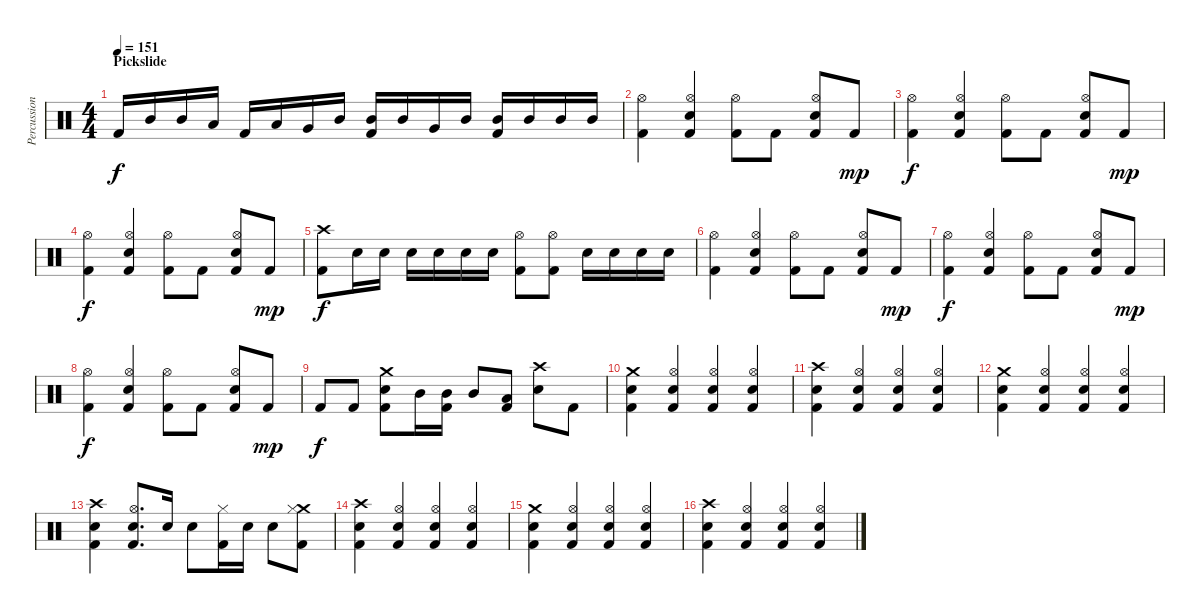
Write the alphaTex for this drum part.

\track ("Percussion" "Percussion") {instrument percussion}
\staff {score}
\articulation defaults
\ts (4 4)
\section ("" "Pickslide")
\tempo 151
\clef neutral
\ks c "Kick (hit) 2".16{dy f} "Mid Tom (hit)".16 "Mid Tom (hit)".16 "Low Tom (hit)".16 "Kick (hit) 2".16 "Low Tom (hit)".16 "Very Low Tom (hit)".16 "Mid Tom (hit)".16
("Mid Tom (hit)" "Kick (hit) 2").16 "Mid Tom (hit)".16 "Very Low Tom (hit)".16 "Mid Tom (hit)".16 ("Mid Tom (hit)" "Kick (hit) 2").16 "Mid Tom (hit)".16 "Mid Tom (hit)".16 "Mid Tom (hit)".16 |
("Hi-Hat (open)" "Kick (hit) 2").4 ("Hi-Hat (open)" "Snare (hit) 2" "Kick (hit) 2").4 ("Hi-Hat (open)" "Kick (hit) 2").8 "Kick (hit) 2".8 ("Hi-Hat (open)" "Snare (hit) 2" "Kick (hit) 2").8 "Kick (hit) 2".8{dy mp} |
("Hi-Hat (open)" "Kick (hit) 2").4{dy f} ("Hi-Hat (open)" "Snare (hit) 2" "Kick (hit) 2").4 ("Hi-Hat (open)" "Kick (hit) 2").8 "Kick (hit) 2".8 ("Hi-Hat (open)" "Snare (hit) 2" "Kick (hit) 2").8 "Kick (hit) 2".8{dy mp} |
("Hi-Hat (open)" "Kick (hit) 2").4{dy f} ("Hi-Hat (open)" "Snare (hit) 2" "Kick (hit) 2").4 ("Hi-Hat (open)" "Kick (hit) 2").8 "Kick (hit) 2".8 ("Hi-Hat (open)" "Snare (hit) 2" "Kick (hit) 2").8 "Kick (hit) 2".8{dy mp} |
("Crash high (hit)" "Kick (hit) 2").8{dy f} "Snare (hit) 2".16 "Snare (hit) 2".16 "Snare (hit) 2".16 "Snare (hit) 2".16 "Snare (hit) 2".16 "Snare (hit) 2".16 ("Hi-Hat (open)" "Kick (hit) 2").8 ("Hi-Hat (open)" "Kick (hit) 2").8 "Snare (hit) 2".16 "Snare (hit) 2".16 "Snare (hit) 2".16 "Snare (hit) 2".16 |
("Hi-Hat (open)" "Kick (hit) 2").4 ("Hi-Hat (open)" "Snare (hit) 2" "Kick (hit) 2").4 ("Hi-Hat (open)" "Kick (hit) 2").8 "Kick (hit) 2".8 ("Hi-Hat (open)" "Snare (hit) 2" "Kick (hit) 2").8 "Kick (hit) 2".8{dy mp} |
("Hi-Hat (open)" "Kick (hit) 2").4{dy f} ("Hi-Hat (open)" "Snare (hit) 2" "Kick (hit) 2").4 ("Hi-Hat (open)" "Kick (hit) 2").8 "Kick (hit) 2".8 ("Hi-Hat (open)" "Snare (hit) 2" "Kick (hit) 2").8 "Kick (hit) 2".8{dy mp} |
("Hi-Hat (open)" "Kick (hit) 2").4{dy f} ("Hi-Hat (open)" "Snare (hit) 2" "Kick (hit) 2").4 ("Hi-Hat (open)" "Kick (hit) 2").8 "Kick (hit) 2".8 ("Hi-Hat (open)" "Snare (hit) 2" "Kick (hit) 2").8 "Kick (hit) 2".8{dy mp} |
"Kick (hit) 2".8{dy f} "Kick (hit) 2".8 ("Crash medium (hit)" "Snare (hit) 2" "Kick (hit) 2").8 "Mid Tom (hit)".16 ("Mid Tom (hit)" "Kick (hit) 2").16 "Mid Tom (hit)".8 ("Low Tom (hit)" "Kick (hit) 2").8 ("Crash high (hit)" "Snare (hit) 2").8 "Kick (hit) 2".8 |
("Crash medium (hit)" "Snare (hit) 2" "Kick (hit) 2").4 ("Hi-Hat (open)" "Snare (hit) 2" "Kick (hit) 2").4 ("Hi-Hat (open)" "Snare (hit) 2" "Kick (hit) 2").4 ("Hi-Hat (open)" "Snare (hit) 2" "Kick (hit) 2").4 |
("Crash high (hit)" "Snare (hit) 2" "Kick (hit) 2").4 ("Hi-Hat (open)" "Snare (hit) 2" "Kick (hit) 2").4 ("Hi-Hat (open)" "Snare (hit) 2" "Kick (hit) 2").4 ("Hi-Hat (open)" "Snare (hit) 2" "Kick (hit) 2").4 |
("Crash medium (hit)" "Snare (hit) 2" "Kick (hit) 2").4 ("Hi-Hat (open)" "Snare (hit) 2" "Kick (hit) 2").4 ("Hi-Hat (open)" "Snare (hit) 2" "Kick (hit) 2").4 ("Hi-Hat (open)" "Snare (hit) 2" "Kick (hit) 2").4 |
("Crash high (hit)" "Snare (hit) 2" "Kick (hit) 2").4 ("Hi-Hat (open)" "Snare (hit) 2" "Kick (hit) 2").8{d} "Snare (hit) 2".16 "Snare (hit) 2".8 ("Hi-Hat (closed)" "Kick (hit) 2").16 "Snare (hit) 2".16 "Snare (hit) 2".8 ("Crash medium (hit)" "Hi-Hat (closed)" "Kick (hit) 2").8 |
("Crash high (hit)" "Snare (hit) 2" "Kick (hit) 2").4 ("Hi-Hat (open)" "Snare (hit) 2" "Kick (hit) 2").4 ("Hi-Hat (open)" "Snare (hit) 2" "Kick (hit) 2").4 ("Hi-Hat (open)" "Snare (hit) 2" "Kick (hit) 2").4 |
("Crash medium (hit)" "Snare (hit) 2" "Kick (hit) 2").4 ("Hi-Hat (open)" "Snare (hit) 2" "Kick (hit) 2").4 ("Hi-Hat (open)" "Snare (hit) 2" "Kick (hit) 2").4 ("Hi-Hat (open)" "Snare (hit) 2" "Kick (hit) 2").4 |
("Crash high (hit)" "Snare (hit) 2" "Kick (hit) 2").4 ("Hi-Hat (open)" "Snare (hit) 2" "Kick (hit) 2").4 ("Hi-Hat (open)" "Snare (hit) 2" "Kick (hit) 2").4 ("Hi-Hat (open)" "Snare (hit) 2" "Kick (hit) 2").4
